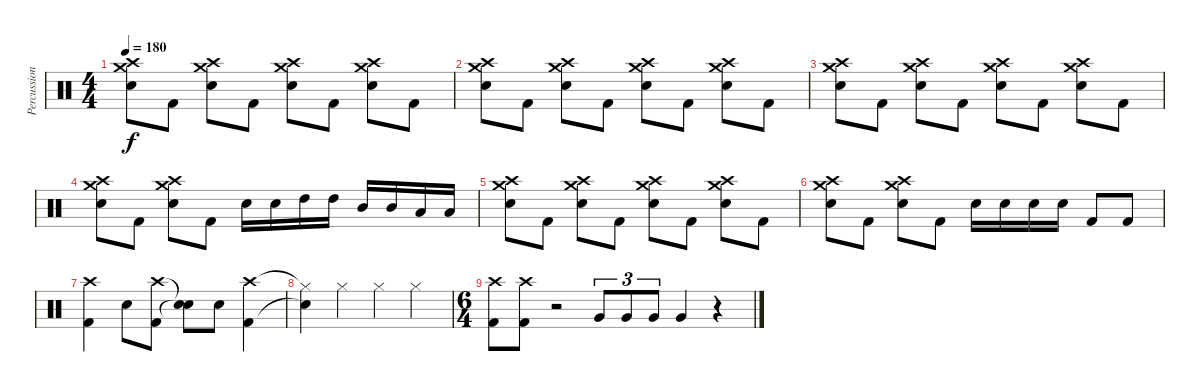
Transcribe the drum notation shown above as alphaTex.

\track ("Percussion" "Percussion") {instrument percussion}
\staff {score}
\articulation defaults
\ts (4 4)
\tempo 180
\clef neutral
\ks c
("Crash high (hit)" "Crash medium (hit)" "Snare (hit) 2").8{dy f} "Kick (hit) 2".8 ("Crash high (hit)" "Crash medium (hit)" "Snare (hit) 2").8 "Kick (hit) 2".8 ("Crash high (hit)" "Crash medium (hit)" "Snare (hit) 2").8 "Kick (hit) 2".8 ("Crash high (hit)" "Crash medium (hit)" "Snare (hit) 2").8 "Kick (hit) 2".8 |
("Crash high (hit)" "Crash medium (hit)" "Snare (hit) 2").8 "Kick (hit) 2".8 ("Crash high (hit)" "Crash medium (hit)" "Snare (hit) 2").8 "Kick (hit) 2".8 ("Crash high (hit)" "Crash medium (hit)" "Snare (hit) 2").8 "Kick (hit) 2".8 ("Crash high (hit)" "Crash medium (hit)" "Snare (hit) 2").8 "Kick (hit) 2".8 |
("Crash high (hit)" "Crash medium (hit)" "Snare (hit) 2").8 "Kick (hit) 2".8 ("Crash high (hit)" "Crash medium (hit)" "Snare (hit) 2").8 "Kick (hit) 2".8 ("Crash high (hit)" "Crash medium (hit)" "Snare (hit) 2").8 "Kick (hit) 2".8 ("Crash high (hit)" "Crash medium (hit)" "Snare (hit) 2").8 "Kick (hit) 2".8 |
("Crash high (hit)" "Crash medium (hit)" "Snare (hit) 2").8 "Kick (hit) 2".8 ("Crash high (hit)" "Crash medium (hit)" "Snare (hit) 2").8 "Kick (hit) 2".8 "Snare (hit) 2".16 "Snare (hit) 2".16 "High Tom (hit)".16 "High Tom (hit)".16 "Mid Tom (hit)".16 "Mid Tom (hit)".16 "Low Tom (hit)".16 "Low Tom (hit)".16 |
("Crash high (hit)" "Crash medium (hit)" "Snare (hit) 2").8 "Kick (hit) 2".8 ("Crash high (hit)" "Crash medium (hit)" "Snare (hit) 2").8 "Kick (hit) 2".8 ("Crash high (hit)" "Crash medium (hit)" "Snare (hit) 2").8 "Kick (hit) 2".8 ("Crash high (hit)" "Crash medium (hit)" "Snare (hit) 2").8 "Kick (hit) 2".8 |
("Crash high (hit)" "Crash medium (hit)" "Snare (hit) 2").8 "Kick (hit) 2".8 ("Crash high (hit)" "Crash medium (hit)" "Snare (hit) 2").8 "Kick (hit) 2".8 "Snare (hit) 2".16 "Snare (hit) 2".16 "Snare (hit) 2".16 "Snare (hit) 2".16 "Kick (hit) 2".8 "Kick (hit) 2".8 |
("Crash high (hit)" "Kick (hit) 2").4 "Snare (hit) 2".8 ("Crash high (hit)" "Kick (hit) 2").8 ("Snare (hit)"{t} "Snare (hit)"{t}).8 "Snare (hit) 2".8 ("Crash high (hit)" "Kick (hit) 2").4 |
("Hi-Hat (closed)"{t} "Snare (hit)"{t}).4 "Hi-Hat (closed)".4 "Hi-Hat (closed)".4 "Hi-Hat (closed)".4 |
\ts (6 4)
("Crash high (hit)" "Kick (hit) 2").8 ("Crash high (hit)" "Kick (hit) 2").8 r.2 "Very Low Tom (hit)".8{tu (3 2)} "Very Low Tom (hit)".8{tu (3 2)} "Very Low Tom (hit)".8{tu (3 2)} "Very Low Tom (hit)".4 r.4
